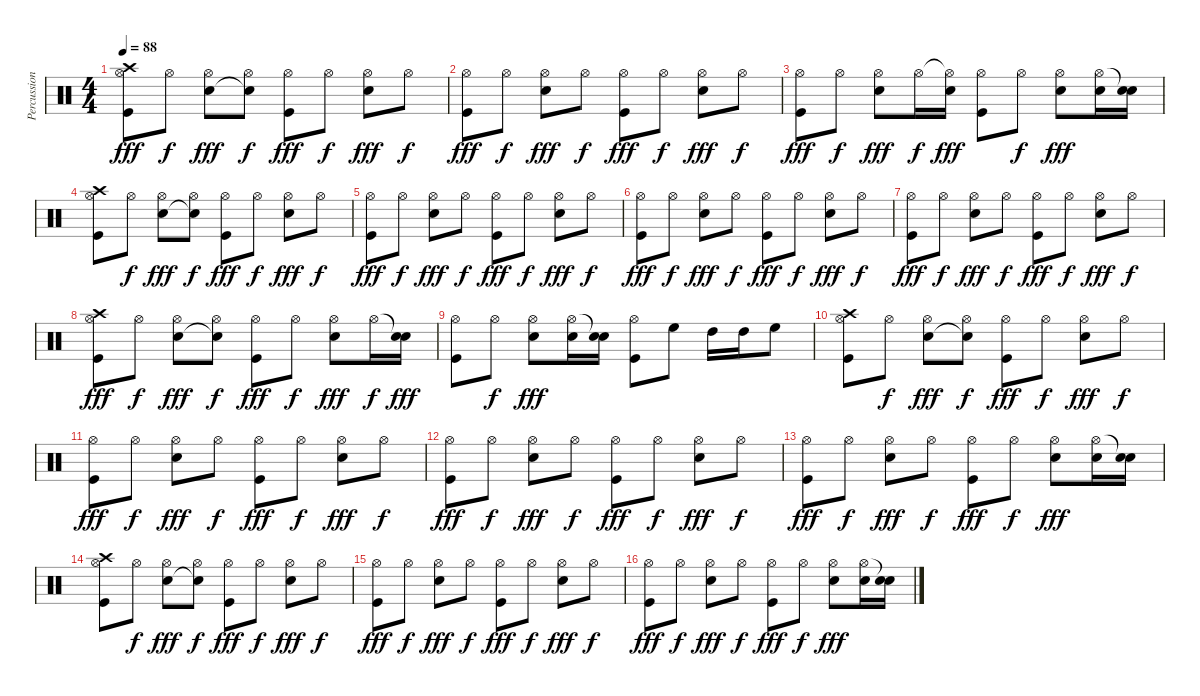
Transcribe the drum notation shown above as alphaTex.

\track ("Percussions" "Percussion") {instrument percussion}
\staff {score}
\articulation defaults
\ts (4 4)
\tempo 88
\clef neutral
\ks c
("Hi-Hat (open)" "Kick (hit)" "Crash high (hit)").8{dy fff} "Hi-Hat (open)".8{dy f} ("Hi-Hat (open)" "Snare (hit) 2").8{dy fff} ("Hi-Hat (open)" "Snare (hit)"{t}).8{dy f} ("Hi-Hat (open)" "Kick (hit)").8{dy fff} "Hi-Hat (open)".8{dy f} ("Hi-Hat (open)" "Snare (hit) 2").8{dy fff} "Hi-Hat (open)".8{dy f} |
("Hi-Hat (open)" "Kick (hit)").8{dy fff} "Hi-Hat (open)".8{dy f} ("Hi-Hat (open)" "Snare (hit) 2").8{dy fff} "Hi-Hat (open)".8{dy f} ("Hi-Hat (open)" "Kick (hit)").8{dy fff} "Hi-Hat (open)".8{dy f} ("Hi-Hat (open)" "Snare (hit) 2").8{dy fff} "Hi-Hat (open)".8{dy f} |
("Hi-Hat (open)" "Kick (hit)").8{dy fff} "Hi-Hat (open)".8{dy f} ("Hi-Hat (open)" "Snare (hit) 2").8{dy fff} "Hi-Hat (open)".16{dy f} ("Hi-Hat (open)"{t} "Snare (hit) 2").16{dy fff} ("Hi-Hat (open)" "Kick (hit)").8 "Hi-Hat (open)".8{dy f} ("Hi-Hat (open)" "Snare (hit) 2").8{dy fff} ("Hi-Hat (open)" "Snare (hit) 2").16 ("Snare (hit)"{t} "Snare (hit) 2").16 |
("Hi-Hat (open)" "Kick (hit)" "Crash high (hit)").8 "Hi-Hat (open)".8{dy f} ("Hi-Hat (open)" "Snare (hit) 2").8{dy fff} ("Hi-Hat (open)" "Snare (hit)"{t}).8{dy f} ("Hi-Hat (open)" "Kick (hit)").8{dy fff} "Hi-Hat (open)".8{dy f} ("Hi-Hat (open)" "Snare (hit) 2").8{dy fff} "Hi-Hat (open)".8{dy f} |
("Hi-Hat (open)" "Kick (hit)").8{dy fff} "Hi-Hat (open)".8{dy f} ("Hi-Hat (open)" "Snare (hit) 2").8{dy fff} "Hi-Hat (open)".8{dy f} ("Hi-Hat (open)" "Kick (hit)").8{dy fff} "Hi-Hat (open)".8{dy f} ("Hi-Hat (open)" "Snare (hit) 2").8{dy fff} "Hi-Hat (open)".8{dy f} |
("Hi-Hat (open)" "Kick (hit)").8{dy fff} "Hi-Hat (open)".8{dy f} ("Hi-Hat (open)" "Snare (hit) 2").8{dy fff} "Hi-Hat (open)".8{dy f} ("Hi-Hat (open)" "Kick (hit)").8{dy fff} "Hi-Hat (open)".8{dy f} ("Hi-Hat (open)" "Snare (hit) 2").8{dy fff} "Hi-Hat (open)".8{dy f} |
("Hi-Hat (open)" "Kick (hit)").8{dy fff} "Hi-Hat (open)".8{dy f} ("Hi-Hat (open)" "Snare (hit) 2").8{dy fff} "Hi-Hat (open)".8{dy f} ("Hi-Hat (open)" "Kick (hit)").8{dy fff} "Hi-Hat (open)".8{dy f} ("Hi-Hat (open)" "Snare (hit) 2").8{dy fff} "Hi-Hat (open)".8{dy f} |
("Hi-Hat (open)" "Kick (hit)" "Crash high (hit)").8{dy fff} "Hi-Hat (open)".8{dy f} ("Hi-Hat (open)" "Snare (hit) 2").8{dy fff} ("Hi-Hat (open)" "Snare (hit)"{t}).8{dy f} ("Hi-Hat (open)" "Kick (hit)").8{dy fff} "Hi-Hat (open)".8{dy f} ("Hi-Hat (open)" "Snare (hit) 2").8{dy fff} "Hi-Hat (open)".16{dy f} ("Snare (hit)"{t} "Snare (hit) 2").16{dy fff} |
("Hi-Hat (open)" "Kick (hit)").8 "Hi-Hat (open)".8{dy f} ("Hi-Hat (open)" "Snare (hit) 2").8{dy fff} ("Hi-Hat (open)" "Snare (hit) 2").16 ("Snare (hit)"{t} "Snare (hit) 2").16 ("Hi-Hat (open)" "Kick (hit)").8 "High Floor Tom (hit)".8 "High Tom (hit)".16 "High Tom (hit)".16 "High Floor Tom (hit)".8 |
("Hi-Hat (open)" "Kick (hit)" "Crash high (hit)").8 "Hi-Hat (open)".8{dy f} ("Hi-Hat (open)" "Snare (hit) 2").8{dy fff} ("Hi-Hat (open)" "Snare (hit)"{t}).8{dy f} ("Hi-Hat (open)" "Kick (hit)").8{dy fff} "Hi-Hat (open)".8{dy f} ("Hi-Hat (open)" "Snare (hit) 2").8{dy fff} "Hi-Hat (open)".8{dy f} |
("Hi-Hat (open)" "Kick (hit)").8{dy fff} "Hi-Hat (open)".8{dy f} ("Hi-Hat (open)" "Snare (hit) 2").8{dy fff} "Hi-Hat (open)".8{dy f} ("Hi-Hat (open)" "Kick (hit)").8{dy fff} "Hi-Hat (open)".8{dy f} ("Hi-Hat (open)" "Snare (hit) 2").8{dy fff} "Hi-Hat (open)".8{dy f} |
("Hi-Hat (open)" "Kick (hit)").8{dy fff} "Hi-Hat (open)".8{dy f} ("Hi-Hat (open)" "Snare (hit) 2").8{dy fff} "Hi-Hat (open)".8{dy f} ("Hi-Hat (open)" "Kick (hit)").8{dy fff} "Hi-Hat (open)".8{dy f} ("Hi-Hat (open)" "Snare (hit) 2").8{dy fff} "Hi-Hat (open)".8{dy f} |
("Hi-Hat (open)" "Kick (hit)").8{dy fff} "Hi-Hat (open)".8{dy f} ("Hi-Hat (open)" "Snare (hit) 2").8{dy fff} "Hi-Hat (open)".8{dy f} ("Hi-Hat (open)" "Kick (hit)").8{dy fff} "Hi-Hat (open)".8{dy f} ("Hi-Hat (open)" "Snare (hit) 2").8{dy fff} ("Hi-Hat (open)" "Snare (hit) 2").16 ("Snare (hit)"{t} "Snare (hit) 2").16 |
("Hi-Hat (open)" "Kick (hit)" "Crash high (hit)").8 "Hi-Hat (open)".8{dy f} ("Hi-Hat (open)" "Snare (hit) 2").8{dy fff} ("Hi-Hat (open)" "Snare (hit)"{t}).8{dy f} ("Hi-Hat (open)" "Kick (hit)").8{dy fff} "Hi-Hat (open)".8{dy f} ("Hi-Hat (open)" "Snare (hit) 2").8{dy fff} "Hi-Hat (open)".8{dy f} |
("Hi-Hat (open)" "Kick (hit)").8{dy fff} "Hi-Hat (open)".8{dy f} ("Hi-Hat (open)" "Snare (hit) 2").8{dy fff} "Hi-Hat (open)".8{dy f} ("Hi-Hat (open)" "Kick (hit)").8{dy fff} "Hi-Hat (open)".8{dy f} ("Hi-Hat (open)" "Snare (hit) 2").8{dy fff} "Hi-Hat (open)".8{dy f} |
("Hi-Hat (open)" "Kick (hit)").8{dy fff} "Hi-Hat (open)".8{dy f} ("Hi-Hat (open)" "Snare (hit) 2").8{dy fff} "Hi-Hat (open)".8{dy f} ("Hi-Hat (open)" "Kick (hit)").8{dy fff} "Hi-Hat (open)".8{dy f} ("Hi-Hat (open)" "Snare (hit) 2").8{dy fff} ("Hi-Hat (open)" "Snare (hit) 2").16 ("Snare (hit)"{t} "Snare (hit) 2").16
